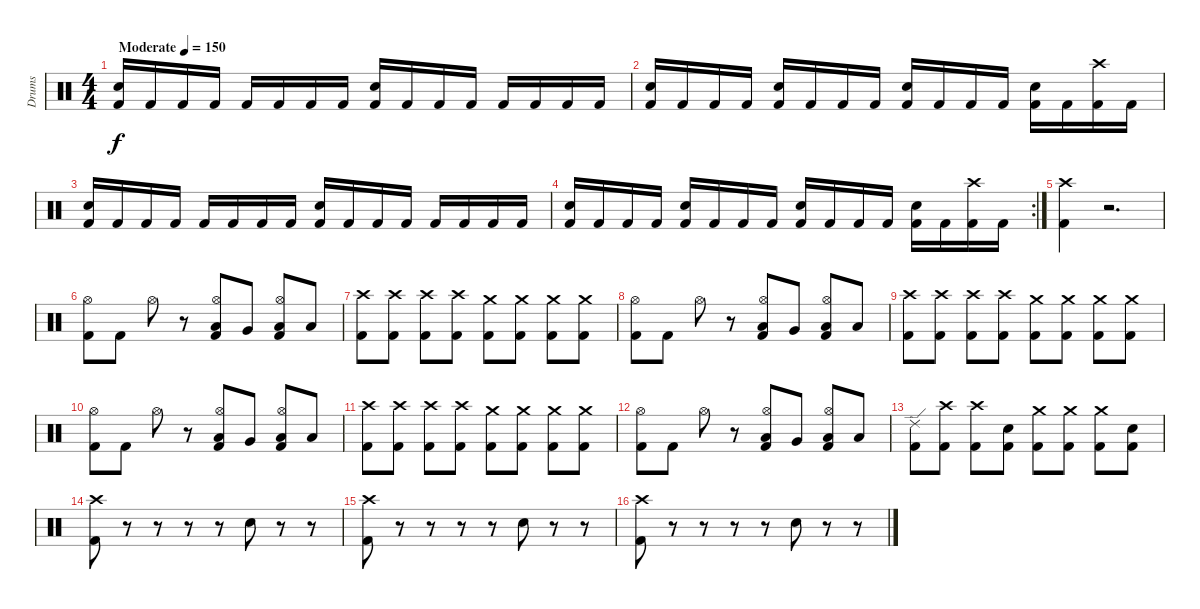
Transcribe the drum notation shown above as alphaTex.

\track ("Drums" "Drums") {instrument percussion}
\staff {score}
\articulation defaults
\ts (4 4)
\tempo (150 "Moderate")
\clef neutral
\ks c
("Kick (hit) 2" "Snare (hit) 2").16{dy f} "Kick (hit) 2".16 "Kick (hit) 2".16 "Kick (hit) 2".16 "Kick (hit) 2".16 "Kick (hit) 2".16 "Kick (hit) 2".16 "Kick (hit) 2".16 ("Kick (hit) 2" "Snare (hit) 2").16 "Kick (hit) 2".16 "Kick (hit) 2".16 "Kick (hit) 2".16 "Kick (hit) 2".16 "Kick (hit) 2".16 "Kick (hit) 2".16 "Kick (hit) 2".16 |
("Kick (hit) 2" "Snare (hit) 2").16 "Kick (hit) 2".16 "Kick (hit) 2".16 "Kick (hit) 2".16 ("Kick (hit) 2" "Snare (hit) 2").16 "Kick (hit) 2".16 "Kick (hit) 2".16 "Kick (hit) 2".16 ("Kick (hit) 2" "Snare (hit) 2").16 "Kick (hit) 2".16 "Kick (hit) 2".16 "Kick (hit) 2".16 ("Kick (hit) 2" "Snare (hit) 2").16 "Kick (hit) 2".16 ("Kick (hit) 2" "Crash high (hit)").16 "Kick (hit) 2".16 |
("Kick (hit) 2" "Snare (hit) 2").16 "Kick (hit) 2".16 "Kick (hit) 2".16 "Kick (hit) 2".16 "Kick (hit) 2".16 "Kick (hit) 2".16 "Kick (hit) 2".16 "Kick (hit) 2".16 ("Kick (hit) 2" "Snare (hit) 2").16 "Kick (hit) 2".16 "Kick (hit) 2".16 "Kick (hit) 2".16 "Kick (hit) 2".16 "Kick (hit) 2".16 "Kick (hit) 2".16 "Kick (hit) 2".16 |
\rc 2
("Kick (hit) 2" "Snare (hit) 2").16 "Kick (hit) 2".16 "Kick (hit) 2".16 "Kick (hit) 2".16 ("Kick (hit) 2" "Snare (hit) 2").16 "Kick (hit) 2".16 "Kick (hit) 2".16 "Kick (hit) 2".16 ("Kick (hit) 2" "Snare (hit) 2").16 "Kick (hit) 2".16 "Kick (hit) 2".16 "Kick (hit) 2".16 ("Kick (hit) 2" "Snare (hit) 2").16 "Kick (hit) 2".16 ("Kick (hit) 2" "Crash high (hit)").16 "Kick (hit) 2".16 |
("Crash high (hit)" "Kick (hit) 2").4 r.2{d} |
("Hi-Hat (open)" "Kick (hit) 2").8 "Kick (hit) 2".8 "Hi-Hat (open)".8 r.8 ("Hi-Hat (open)" "Kick (hit) 2" "Low Floor Tom (hit)").8 "Very Low Tom (hit)".8 ("Hi-Hat (open)" "Kick (hit) 2" "Low Floor Tom (hit)").8 "Low Tom (hit)".8 |
("Crash high (hit)" "Kick (hit) 2").8 ("Crash high (hit)" "Kick (hit) 2").8 ("Crash high (hit)" "Kick (hit) 2").8 ("Crash high (hit)" "Kick (hit) 2").8 ("Crash medium (hit)" "Kick (hit) 2").8 ("Crash medium (hit)" "Kick (hit) 2").8 ("Crash medium (hit)" "Kick (hit) 2").8 ("Crash medium (hit)" "Kick (hit) 2").8 |
("Hi-Hat (open)" "Kick (hit) 2").8 "Kick (hit) 2".8 "Hi-Hat (open)".8 r.8 ("Hi-Hat (open)" "Kick (hit) 2" "Low Floor Tom (hit)").8 "Very Low Tom (hit)".8 ("Hi-Hat (open)" "Kick (hit) 2" "Low Floor Tom (hit)").8 "Low Tom (hit)".8 |
("Crash high (hit)" "Kick (hit) 2").8 ("Crash high (hit)" "Kick (hit) 2").8 ("Crash high (hit)" "Kick (hit) 2").8 ("Crash high (hit)" "Kick (hit) 2").8 ("Crash medium (hit)" "Kick (hit) 2").8 ("Crash medium (hit)" "Kick (hit) 2").8 ("Crash medium (hit)" "Kick (hit) 2").8 ("Crash medium (hit)" "Kick (hit) 2").8 |
("Hi-Hat (open)" "Kick (hit) 2").8 "Kick (hit) 2".8 "Hi-Hat (open)".8 r.8 ("Hi-Hat (open)" "Kick (hit) 2" "Low Floor Tom (hit)").8 "Very Low Tom (hit)".8 ("Hi-Hat (open)" "Kick (hit) 2" "Low Floor Tom (hit)").8 "Low Tom (hit)".8 |
("Crash high (hit)" "Kick (hit) 2").8 ("Crash high (hit)" "Kick (hit) 2").8 ("Crash high (hit)" "Kick (hit) 2").8 ("Crash high (hit)" "Kick (hit) 2").8 ("Crash medium (hit)" "Kick (hit) 2").8 ("Crash medium (hit)" "Kick (hit) 2").8 ("Crash medium (hit)" "Kick (hit) 2").8 ("Crash medium (hit)" "Kick (hit) 2").8 |
("Hi-Hat (open)" "Kick (hit) 2").8 "Kick (hit) 2".8 "Hi-Hat (open)".8 r.8 ("Hi-Hat (open)" "Kick (hit) 2" "Low Floor Tom (hit)").8 "Very Low Tom (hit)".8 ("Hi-Hat (open)" "Kick (hit) 2" "Low Floor Tom (hit)").8 "Low Tom (hit)".8 |
("Ride (edge) 2" "Kick (hit) 2").8 ("Crash high (hit)" "Kick (hit) 2").8 ("Crash high (hit)" "Kick (hit) 2").8 ("Snare (hit) 2" "Kick (hit) 2").8 ("Crash medium (hit)" "Kick (hit) 2").8 ("Crash medium (hit)" "Kick (hit) 2").8 ("Crash medium (hit)" "Kick (hit) 2").8 ("Snare (hit) 2" "Kick (hit) 2").8 |
("Crash high (hit)" "Kick (hit) 2").8 r.8 r.8 r.8 r.8 "Snare (hit) 2".8 r.8 r.8 |
("Crash high (hit)" "Kick (hit) 2").8 r.8 r.8 r.8 r.8 "Snare (hit) 2".8 r.8 r.8 |
("Crash high (hit)" "Kick (hit) 2").8 r.8 r.8 r.8 r.8 "Snare (hit) 2".8 r.8 r.8
